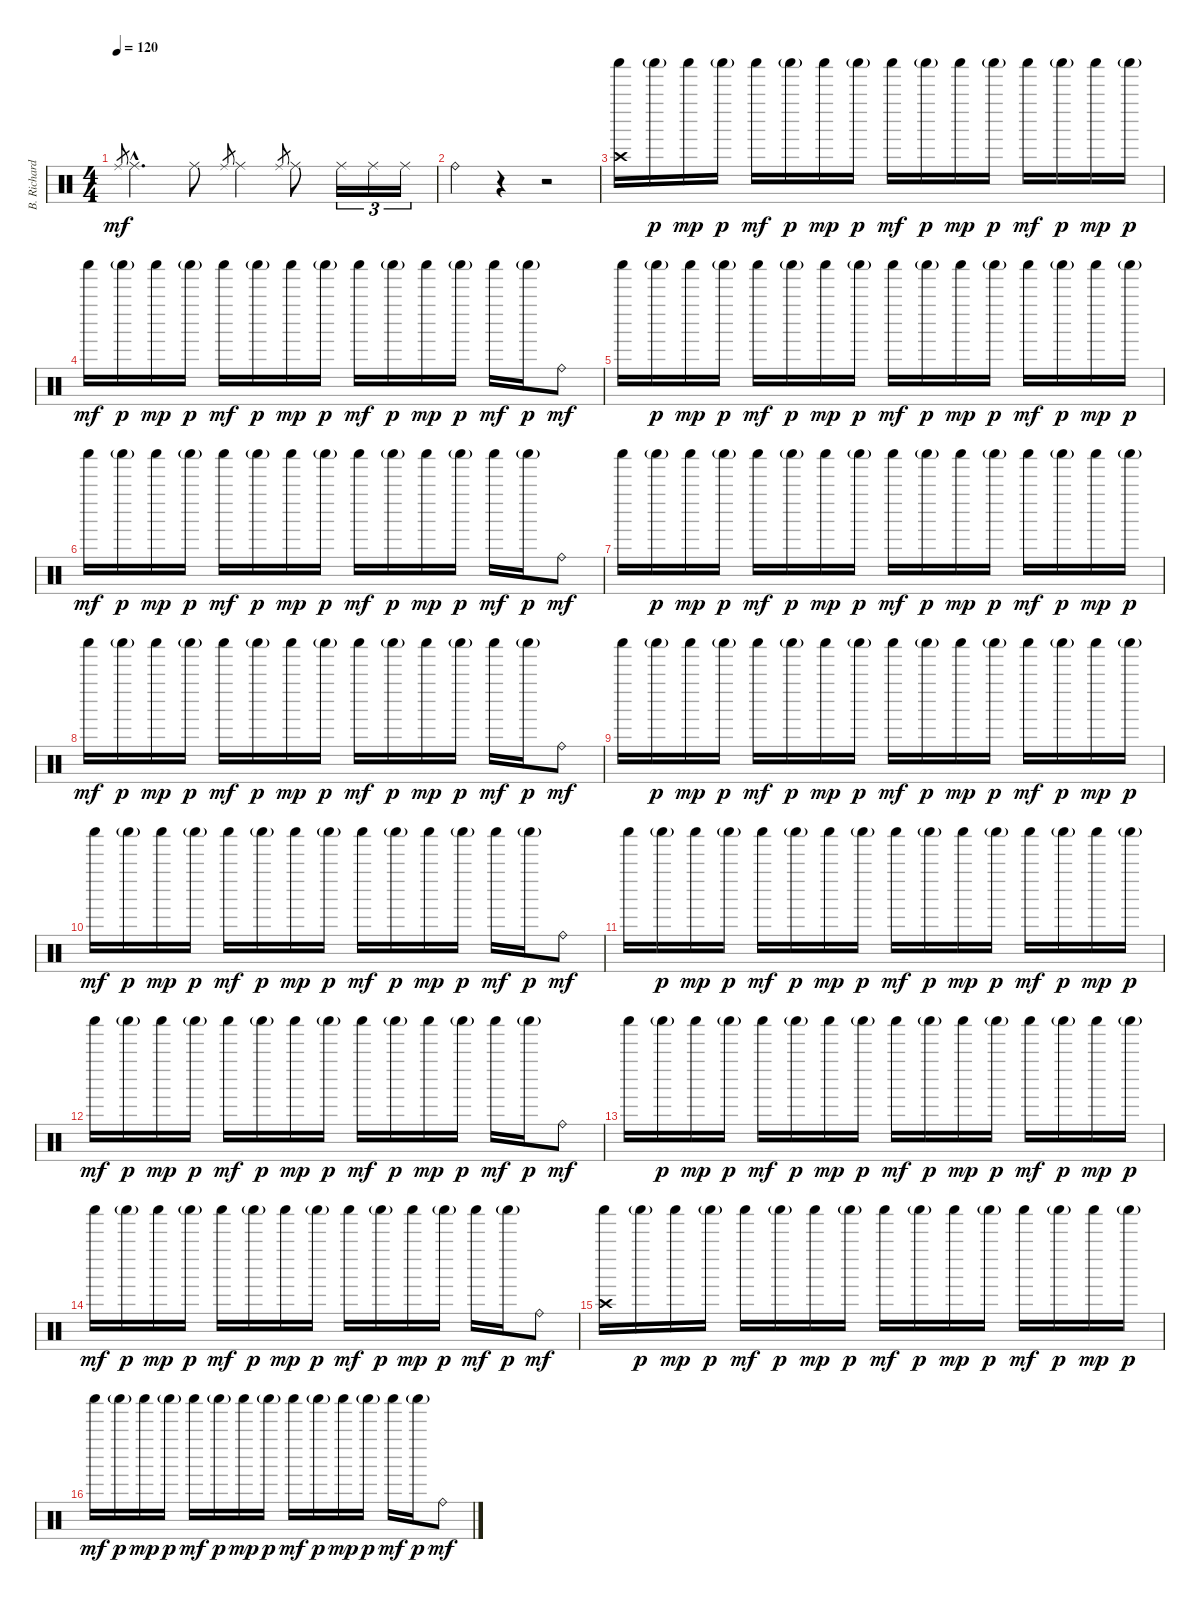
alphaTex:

\track ("B. Richardson Drums" "B. Richard") {instrument percussion}
\staff {score}
\articulation defaults
\ts (4 4)
\tempo 120
\clef neutral
\ks c "Ride (middle)".8{gr dy mf} "Ride (middle)"{hac}.4{d} "Ride (middle)".8 "Ride (middle)".8{gr} "Ride (middle)".4 "Ride (middle)".8{gr} "Ride (middle)".8 "Ride (middle)".16{tu (3 2)} "Ride (middle)".16{tu (3 2)} "Ride (middle)".16{tu (3 2)}
|
"Ride (bell)".4 r.4 r.2 |
("Shaker (hit)" "Crash high (hit)").16 "Shaker (hit)"{g}.16{dy p} "Shaker (hit)".16{dy mp} "Shaker (hit)"{g}.16{dy p} "Shaker (hit)".16{dy mf} "Shaker (hit)"{g}.16{dy p} "Shaker (hit)".16{dy mp} "Shaker (hit)"{g}.16{dy p} "Shaker (hit)".16{dy mf} "Shaker (hit)"{g}.16{dy p} "Shaker (hit)".16{dy mp} "Shaker (hit)"{g}.16{dy p} "Shaker (hit)".16{dy mf} "Shaker (hit)"{g}.16{dy p} "Shaker (hit)".16{dy mp} "Shaker (hit)"{g}.16{dy p} |
"Shaker (hit)".16{dy mf} "Shaker (hit)"{g}.16{dy p} "Shaker (hit)".16{dy mp} "Shaker (hit)"{g}.16{dy p} "Shaker (hit)".16{dy mf} "Shaker (hit)"{g}.16{dy p} "Shaker (hit)".16{dy mp} "Shaker (hit)"{g}.16{dy p} "Shaker (hit)".16{dy mf} "Shaker (hit)"{g}.16{dy p} "Shaker (hit)".16{dy mp} "Shaker (hit)"{g}.16{dy p} "Shaker (hit)".16{dy mf} "Shaker (hit)"{g}.16{dy p} "Ride (bell)".8{dy mf} |
"Shaker (hit)".16 "Shaker (hit)"{g}.16{dy p} "Shaker (hit)".16{dy mp} "Shaker (hit)"{g}.16{dy p} "Shaker (hit)".16{dy mf} "Shaker (hit)"{g}.16{dy p} "Shaker (hit)".16{dy mp} "Shaker (hit)"{g}.16{dy p} "Shaker (hit)".16{dy mf} "Shaker (hit)"{g}.16{dy p} "Shaker (hit)".16{dy mp} "Shaker (hit)"{g}.16{dy p} "Shaker (hit)".16{dy mf} "Shaker (hit)"{g}.16{dy p} "Shaker (hit)".16{dy mp} "Shaker (hit)"{g}.16{dy p} |
"Shaker (hit)".16{dy mf} "Shaker (hit)"{g}.16{dy p} "Shaker (hit)".16{dy mp} "Shaker (hit)"{g}.16{dy p} "Shaker (hit)".16{dy mf} "Shaker (hit)"{g}.16{dy p} "Shaker (hit)".16{dy mp} "Shaker (hit)"{g}.16{dy p} "Shaker (hit)".16{dy mf} "Shaker (hit)"{g}.16{dy p} "Shaker (hit)".16{dy mp} "Shaker (hit)"{g}.16{dy p} "Shaker (hit)".16{dy mf} "Shaker (hit)"{g}.16{dy p} "Ride (bell)".8{dy mf} |
"Shaker (hit)".16 "Shaker (hit)"{g}.16{dy p} "Shaker (hit)".16{dy mp} "Shaker (hit)"{g}.16{dy p} "Shaker (hit)".16{dy mf} "Shaker (hit)"{g}.16{dy p} "Shaker (hit)".16{dy mp} "Shaker (hit)"{g}.16{dy p} "Shaker (hit)".16{dy mf} "Shaker (hit)"{g}.16{dy p} "Shaker (hit)".16{dy mp} "Shaker (hit)"{g}.16{dy p} "Shaker (hit)".16{dy mf} "Shaker (hit)"{g}.16{dy p} "Shaker (hit)".16{dy mp} "Shaker (hit)"{g}.16{dy p} |
"Shaker (hit)".16{dy mf} "Shaker (hit)"{g}.16{dy p} "Shaker (hit)".16{dy mp} "Shaker (hit)"{g}.16{dy p} "Shaker (hit)".16{dy mf} "Shaker (hit)"{g}.16{dy p} "Shaker (hit)".16{dy mp} "Shaker (hit)"{g}.16{dy p} "Shaker (hit)".16{dy mf} "Shaker (hit)"{g}.16{dy p} "Shaker (hit)".16{dy mp} "Shaker (hit)"{g}.16{dy p} "Shaker (hit)".16{dy mf} "Shaker (hit)"{g}.16{dy p} "Ride (bell)".8{dy mf} |
"Shaker (hit)".16 "Shaker (hit)"{g}.16{dy p} "Shaker (hit)".16{dy mp} "Shaker (hit)"{g}.16{dy p} "Shaker (hit)".16{dy mf} "Shaker (hit)"{g}.16{dy p} "Shaker (hit)".16{dy mp} "Shaker (hit)"{g}.16{dy p} "Shaker (hit)".16{dy mf} "Shaker (hit)"{g}.16{dy p} "Shaker (hit)".16{dy mp} "Shaker (hit)"{g}.16{dy p} "Shaker (hit)".16{dy mf} "Shaker (hit)"{g}.16{dy p} "Shaker (hit)".16{dy mp} "Shaker (hit)"{g}.16{dy p} |
"Shaker (hit)".16{dy mf} "Shaker (hit)"{g}.16{dy p} "Shaker (hit)".16{dy mp} "Shaker (hit)"{g}.16{dy p} "Shaker (hit)".16{dy mf} "Shaker (hit)"{g}.16{dy p} "Shaker (hit)".16{dy mp} "Shaker (hit)"{g}.16{dy p} "Shaker (hit)".16{dy mf} "Shaker (hit)"{g}.16{dy p} "Shaker (hit)".16{dy mp} "Shaker (hit)"{g}.16{dy p} "Shaker (hit)".16{dy mf} "Shaker (hit)"{g}.16{dy p} "Ride (bell)".8{dy mf} |
"Shaker (hit)".16 "Shaker (hit)"{g}.16{dy p} "Shaker (hit)".16{dy mp} "Shaker (hit)"{g}.16{dy p} "Shaker (hit)".16{dy mf} "Shaker (hit)"{g}.16{dy p} "Shaker (hit)".16{dy mp} "Shaker (hit)"{g}.16{dy p} "Shaker (hit)".16{dy mf} "Shaker (hit)"{g}.16{dy p} "Shaker (hit)".16{dy mp} "Shaker (hit)"{g}.16{dy p} "Shaker (hit)".16{dy mf} "Shaker (hit)"{g}.16{dy p} "Shaker (hit)".16{dy mp} "Shaker (hit)"{g}.16{dy p} |
"Shaker (hit)".16{dy mf} "Shaker (hit)"{g}.16{dy p} "Shaker (hit)".16{dy mp} "Shaker (hit)"{g}.16{dy p} "Shaker (hit)".16{dy mf} "Shaker (hit)"{g}.16{dy p} "Shaker (hit)".16{dy mp} "Shaker (hit)"{g}.16{dy p} "Shaker (hit)".16{dy mf} "Shaker (hit)"{g}.16{dy p} "Shaker (hit)".16{dy mp} "Shaker (hit)"{g}.16{dy p} "Shaker (hit)".16{dy mf} "Shaker (hit)"{g}.16{dy p} "Ride (bell)".8{dy mf} |
"Shaker (hit)".16 "Shaker (hit)"{g}.16{dy p} "Shaker (hit)".16{dy mp} "Shaker (hit)"{g}.16{dy p} "Shaker (hit)".16{dy mf} "Shaker (hit)"{g}.16{dy p} "Shaker (hit)".16{dy mp} "Shaker (hit)"{g}.16{dy p} "Shaker (hit)".16{dy mf} "Shaker (hit)"{g}.16{dy p} "Shaker (hit)".16{dy mp} "Shaker (hit)"{g}.16{dy p} "Shaker (hit)".16{dy mf} "Shaker (hit)"{g}.16{dy p} "Shaker (hit)".16{dy mp} "Shaker (hit)"{g}.16{dy p} |
"Shaker (hit)".16{dy mf} "Shaker (hit)"{g}.16{dy p} "Shaker (hit)".16{dy mp} "Shaker (hit)"{g}.16{dy p} "Shaker (hit)".16{dy mf} "Shaker (hit)"{g}.16{dy p} "Shaker (hit)".16{dy mp} "Shaker (hit)"{g}.16{dy p} "Shaker (hit)".16{dy mf} "Shaker (hit)"{g}.16{dy p} "Shaker (hit)".16{dy mp} "Shaker (hit)"{g}.16{dy p} "Shaker (hit)".16{dy mf} "Shaker (hit)"{g}.16{dy p} "Ride (bell)".8{dy mf} |
("Shaker (hit)" "Crash high (hit)").16 "Shaker (hit)"{g}.16{dy p} "Shaker (hit)".16{dy mp} "Shaker (hit)"{g}.16{dy p} "Shaker (hit)".16{dy mf} "Shaker (hit)"{g}.16{dy p} "Shaker (hit)".16{dy mp} "Shaker (hit)"{g}.16{dy p} "Shaker (hit)".16{dy mf} "Shaker (hit)"{g}.16{dy p} "Shaker (hit)".16{dy mp} "Shaker (hit)"{g}.16{dy p} "Shaker (hit)".16{dy mf} "Shaker (hit)"{g}.16{dy p} "Shaker (hit)".16{dy mp} "Shaker (hit)"{g}.16{dy p} |
"Shaker (hit)".16{dy mf} "Shaker (hit)"{g}.16{dy p} "Shaker (hit)".16{dy mp} "Shaker (hit)"{g}.16{dy p} "Shaker (hit)".16{dy mf} "Shaker (hit)"{g}.16{dy p} "Shaker (hit)".16{dy mp} "Shaker (hit)"{g}.16{dy p} "Shaker (hit)".16{dy mf} "Shaker (hit)"{g}.16{dy p} "Shaker (hit)".16{dy mp} "Shaker (hit)"{g}.16{dy p} "Shaker (hit)".16{dy mf} "Shaker (hit)"{g}.16{dy p} "Ride (bell)".8{dy mf}
